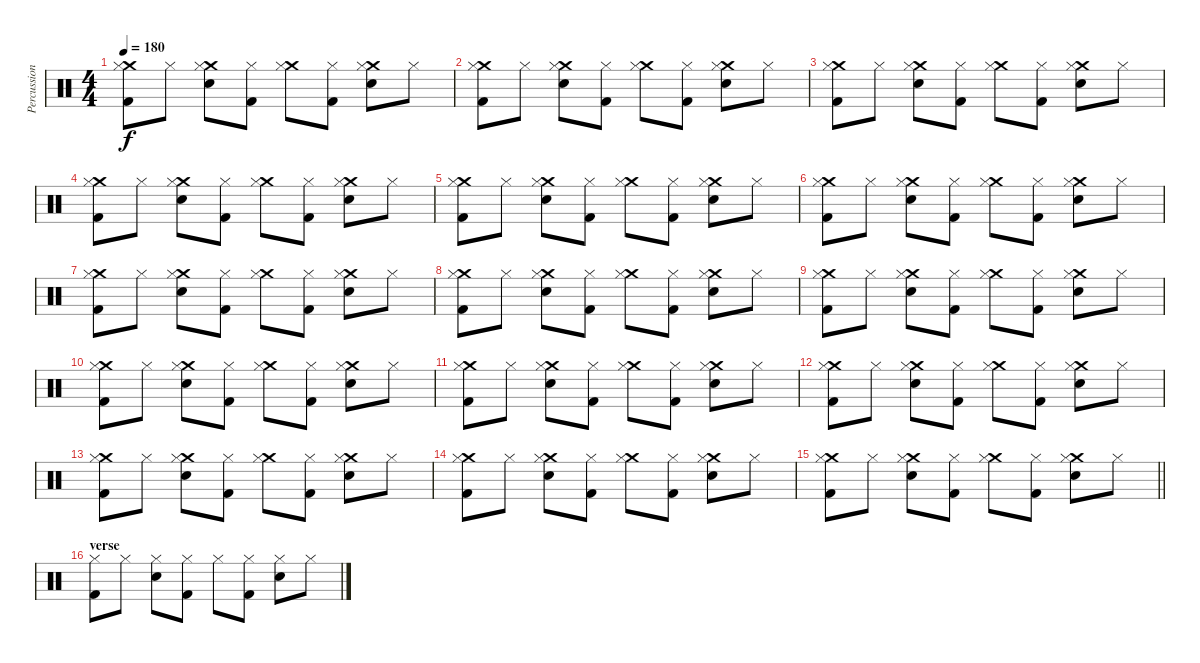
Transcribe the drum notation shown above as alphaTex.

\track ("Percussion" "Percussion") {instrument percussion}
\staff {score}
\articulation defaults
\ts (4 4)
\tempo 180
\clef neutral
\ks c
("Crash medium (hit)" "Hi-Hat (closed)" "Kick (hit) 2").8{dy f} "Hi-Hat (closed)".8 ("Crash medium (hit)" "Hi-Hat (closed)" "Snare (hit) 2").8 ("Hi-Hat (closed)" "Kick (hit) 2").8 ("Crash medium (hit)" "Hi-Hat (closed)").8 ("Hi-Hat (closed)" "Kick (hit) 2").8 ("Crash medium (hit)" "Hi-Hat (closed)" "Snare (hit) 2").8 "Hi-Hat (closed)".8 |
("Crash medium (hit)" "Hi-Hat (closed)" "Kick (hit) 2").8 "Hi-Hat (closed)".8 ("Crash medium (hit)" "Hi-Hat (closed)" "Snare (hit) 2").8 ("Hi-Hat (closed)" "Kick (hit) 2").8 ("Crash medium (hit)" "Hi-Hat (closed)").8 ("Hi-Hat (closed)" "Kick (hit) 2").8 ("Crash medium (hit)" "Hi-Hat (closed)" "Snare (hit) 2").8 "Hi-Hat (closed)".8 |
("Crash medium (hit)" "Hi-Hat (closed)" "Kick (hit) 2").8 "Hi-Hat (closed)".8 ("Crash medium (hit)" "Hi-Hat (closed)" "Snare (hit) 2").8 ("Hi-Hat (closed)" "Kick (hit) 2").8 ("Crash medium (hit)" "Hi-Hat (closed)").8 ("Hi-Hat (closed)" "Kick (hit) 2").8 ("Crash medium (hit)" "Hi-Hat (closed)" "Snare (hit) 2").8 "Hi-Hat (closed)".8 |
("Crash medium (hit)" "Hi-Hat (closed)" "Kick (hit) 2").8 "Hi-Hat (closed)".8 ("Crash medium (hit)" "Hi-Hat (closed)" "Snare (hit) 2").8 ("Hi-Hat (closed)" "Kick (hit) 2").8 ("Crash medium (hit)" "Hi-Hat (closed)").8 ("Hi-Hat (closed)" "Kick (hit) 2").8 ("Crash medium (hit)" "Hi-Hat (closed)" "Snare (hit) 2").8 "Hi-Hat (closed)".8 |
("Crash medium (hit)" "Hi-Hat (closed)" "Kick (hit) 2").8 "Hi-Hat (closed)".8 ("Crash medium (hit)" "Hi-Hat (closed)" "Snare (hit) 2").8 ("Hi-Hat (closed)" "Kick (hit) 2").8 ("Crash medium (hit)" "Hi-Hat (closed)").8 ("Hi-Hat (closed)" "Kick (hit) 2").8 ("Crash medium (hit)" "Hi-Hat (closed)" "Snare (hit) 2").8 "Hi-Hat (closed)".8 |
("Crash medium (hit)" "Hi-Hat (closed)" "Kick (hit) 2").8 "Hi-Hat (closed)".8 ("Crash medium (hit)" "Hi-Hat (closed)" "Snare (hit) 2").8 ("Hi-Hat (closed)" "Kick (hit) 2").8 ("Crash medium (hit)" "Hi-Hat (closed)").8 ("Hi-Hat (closed)" "Kick (hit) 2").8 ("Crash medium (hit)" "Hi-Hat (closed)" "Snare (hit) 2").8 "Hi-Hat (closed)".8 |
("Crash medium (hit)" "Hi-Hat (closed)" "Kick (hit) 2").8 "Hi-Hat (closed)".8 ("Crash medium (hit)" "Hi-Hat (closed)" "Snare (hit) 2").8 ("Hi-Hat (closed)" "Kick (hit) 2").8 ("Crash medium (hit)" "Hi-Hat (closed)").8 ("Hi-Hat (closed)" "Kick (hit) 2").8 ("Crash medium (hit)" "Hi-Hat (closed)" "Snare (hit) 2").8 "Hi-Hat (closed)".8 |
("Crash medium (hit)" "Hi-Hat (closed)" "Kick (hit) 2").8 "Hi-Hat (closed)".8 ("Crash medium (hit)" "Hi-Hat (closed)" "Snare (hit) 2").8 ("Hi-Hat (closed)" "Kick (hit) 2").8 ("Crash medium (hit)" "Hi-Hat (closed)").8 ("Hi-Hat (closed)" "Kick (hit) 2").8 ("Crash medium (hit)" "Hi-Hat (closed)" "Snare (hit) 2").8 "Hi-Hat (closed)".8 |
("Crash medium (hit)" "Hi-Hat (closed)" "Kick (hit) 2").8 "Hi-Hat (closed)".8 ("Crash medium (hit)" "Hi-Hat (closed)" "Snare (hit) 2").8 ("Hi-Hat (closed)" "Kick (hit) 2").8 ("Crash medium (hit)" "Hi-Hat (closed)").8 ("Hi-Hat (closed)" "Kick (hit) 2").8 ("Crash medium (hit)" "Hi-Hat (closed)" "Snare (hit) 2").8 "Hi-Hat (closed)".8 |
("Crash medium (hit)" "Hi-Hat (closed)" "Kick (hit) 2").8 "Hi-Hat (closed)".8 ("Crash medium (hit)" "Hi-Hat (closed)" "Snare (hit) 2").8 ("Hi-Hat (closed)" "Kick (hit) 2").8 ("Crash medium (hit)" "Hi-Hat (closed)").8 ("Hi-Hat (closed)" "Kick (hit) 2").8 ("Crash medium (hit)" "Hi-Hat (closed)" "Snare (hit) 2").8 "Hi-Hat (closed)".8 |
("Crash medium (hit)" "Hi-Hat (closed)" "Kick (hit) 2").8 "Hi-Hat (closed)".8 ("Crash medium (hit)" "Hi-Hat (closed)" "Snare (hit) 2").8 ("Hi-Hat (closed)" "Kick (hit) 2").8 ("Crash medium (hit)" "Hi-Hat (closed)").8 ("Hi-Hat (closed)" "Kick (hit) 2").8 ("Crash medium (hit)" "Hi-Hat (closed)" "Snare (hit) 2").8 "Hi-Hat (closed)".8 |
("Crash medium (hit)" "Hi-Hat (closed)" "Kick (hit) 2").8 "Hi-Hat (closed)".8 ("Crash medium (hit)" "Hi-Hat (closed)" "Snare (hit) 2").8 ("Hi-Hat (closed)" "Kick (hit) 2").8 ("Crash medium (hit)" "Hi-Hat (closed)").8 ("Hi-Hat (closed)" "Kick (hit) 2").8 ("Crash medium (hit)" "Hi-Hat (closed)" "Snare (hit) 2").8 "Hi-Hat (closed)".8 |
("Crash medium (hit)" "Hi-Hat (closed)" "Kick (hit) 2").8 "Hi-Hat (closed)".8 ("Crash medium (hit)" "Hi-Hat (closed)" "Snare (hit) 2").8 ("Hi-Hat (closed)" "Kick (hit) 2").8 ("Crash medium (hit)" "Hi-Hat (closed)").8 ("Hi-Hat (closed)" "Kick (hit) 2").8 ("Crash medium (hit)" "Hi-Hat (closed)" "Snare (hit) 2").8 "Hi-Hat (closed)".8 |
("Crash medium (hit)" "Hi-Hat (closed)" "Kick (hit) 2").8 "Hi-Hat (closed)".8 ("Crash medium (hit)" "Hi-Hat (closed)" "Snare (hit) 2").8 ("Hi-Hat (closed)" "Kick (hit) 2").8 ("Crash medium (hit)" "Hi-Hat (closed)").8 ("Hi-Hat (closed)" "Kick (hit) 2").8 ("Crash medium (hit)" "Hi-Hat (closed)" "Snare (hit) 2").8 "Hi-Hat (closed)".8 |
\barLineRight lightlight
("Crash medium (hit)" "Hi-Hat (closed)" "Kick (hit) 2").8 "Hi-Hat (closed)".8 ("Crash medium (hit)" "Hi-Hat (closed)" "Snare (hit) 2").8 ("Hi-Hat (closed)" "Kick (hit) 2").8 ("Crash medium (hit)" "Hi-Hat (closed)").8 ("Hi-Hat (closed)" "Kick (hit) 2").8 ("Crash medium (hit)" "Hi-Hat (closed)" "Snare (hit) 2").8 "Hi-Hat (closed)".8 |
\section ("" "verse")
("Hi-Hat (closed)" "Kick (hit) 2").8 "Hi-Hat (closed)".8 ("Hi-Hat (closed)" "Snare (hit) 2").8 ("Hi-Hat (closed)" "Kick (hit) 2").8 "Hi-Hat (closed)".8 ("Hi-Hat (closed)" "Kick (hit) 2").8 ("Hi-Hat (closed)" "Snare (hit) 2").8 "Hi-Hat (closed)".8
